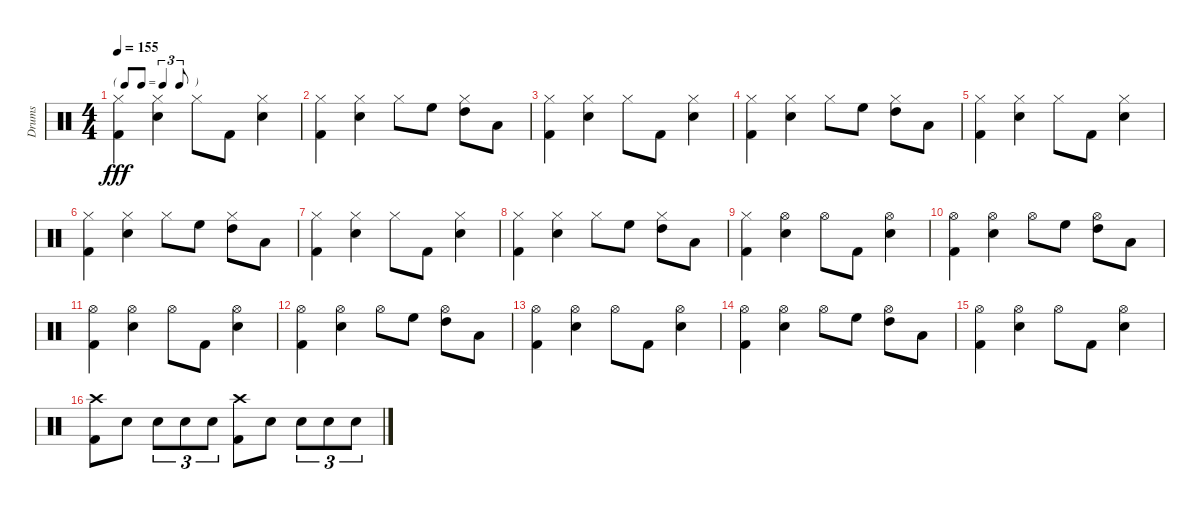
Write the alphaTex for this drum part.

\track ("Drums" "Drums") {instrument percussion}
\staff {score}
\articulation defaults
\ts (4 4)
\tf triplet8th
\tempo 155
\clef neutral
\ks c
("Hi-Hat (closed)" "Kick (hit) 2").4{dy fff} ("Hi-Hat (closed)" "Snare (hit) 2").4 "Hi-Hat (closed)".8 "Kick (hit) 2".8 ("Hi-Hat (closed)" "Snare (hit) 2").4 |
("Hi-Hat (closed)" "Kick (hit) 2").4 ("Hi-Hat (closed)" "Snare (hit) 2").4 "Hi-Hat (closed)".8 "High Floor Tom (hit)".8 ("Hi-Hat (closed)" "High Tom (hit)").8 "Low Tom (hit)".8 |
("Hi-Hat (closed)" "Kick (hit) 2").4 ("Hi-Hat (closed)" "Snare (hit) 2").4 "Hi-Hat (closed)".8 "Kick (hit) 2".8 ("Hi-Hat (closed)" "Snare (hit) 2").4 |
("Hi-Hat (closed)" "Kick (hit) 2").4 ("Hi-Hat (closed)" "Snare (hit) 2").4 "Hi-Hat (closed)".8 "High Floor Tom (hit)".8 ("Hi-Hat (closed)" "High Tom (hit)").8 "Low Tom (hit)".8 |
("Hi-Hat (closed)" "Kick (hit) 2").4 ("Hi-Hat (closed)" "Snare (hit) 2").4 "Hi-Hat (closed)".8 "Kick (hit) 2".8 ("Hi-Hat (closed)" "Snare (hit) 2").4 |
("Hi-Hat (closed)" "Kick (hit) 2").4 ("Hi-Hat (closed)" "Snare (hit) 2").4 "Hi-Hat (closed)".8 "High Floor Tom (hit)".8 ("Hi-Hat (closed)" "High Tom (hit)").8 "Low Tom (hit)".8 |
("Hi-Hat (closed)" "Kick (hit) 2").4 ("Hi-Hat (closed)" "Snare (hit) 2").4 "Hi-Hat (closed)".8 "Kick (hit) 2".8 ("Hi-Hat (closed)" "Snare (hit) 2").4 |
("Hi-Hat (closed)" "Kick (hit) 2").4 ("Hi-Hat (closed)" "Snare (hit) 2").4 "Hi-Hat (closed)".8 "High Floor Tom (hit)".8 ("Hi-Hat (closed)" "High Tom (hit)").8 "Low Tom (hit)".8 |
("Hi-Hat (closed)" "Kick (hit) 2").4 ("Hi-Hat (open)" "Snare (hit) 2").4 "Hi-Hat (open)".8 "Kick (hit) 2".8 ("Hi-Hat (open)" "Snare (hit) 2").4 |
("Hi-Hat (open)" "Kick (hit) 2").4 ("Hi-Hat (open)" "Snare (hit) 2").4 "Hi-Hat (open)".8 "High Floor Tom (hit)".8 ("Hi-Hat (open)" "High Tom (hit)").8 "Low Tom (hit)".8 |
("Hi-Hat (open)" "Kick (hit) 2").4 ("Hi-Hat (open)" "Snare (hit) 2").4 "Hi-Hat (open)".8 "Kick (hit) 2".8 ("Hi-Hat (open)" "Snare (hit) 2").4 |
("Hi-Hat (open)" "Kick (hit) 2").4 ("Hi-Hat (open)" "Snare (hit) 2").4 "Hi-Hat (open)".8 "High Floor Tom (hit)".8 ("Hi-Hat (open)" "High Tom (hit)").8 "Low Tom (hit)".8 |
("Hi-Hat (open)" "Kick (hit) 2").4 ("Hi-Hat (open)" "Snare (hit) 2").4 "Hi-Hat (open)".8 "Kick (hit) 2".8 ("Hi-Hat (open)" "Snare (hit) 2").4 |
("Hi-Hat (open)" "Kick (hit) 2").4 ("Hi-Hat (open)" "Snare (hit) 2").4 "Hi-Hat (open)".8 "High Floor Tom (hit)".8 ("Hi-Hat (open)" "High Tom (hit)").8 "Low Tom (hit)".8 |
("Hi-Hat (open)" "Kick (hit) 2").4 ("Hi-Hat (open)" "Snare (hit) 2").4 "Hi-Hat (open)".8 "Kick (hit) 2".8 ("Hi-Hat (open)" "Snare (hit) 2").4 |
("Crash high (hit)" "Kick (hit) 2").8 "Snare (hit) 2".8 "Snare (hit) 2".8{tu (3 2)} "Snare (hit) 2".8{tu (3 2)} "Snare (hit) 2".8{tu (3 2)} ("Crash high (hit)" "Kick (hit) 2").8 "Snare (hit) 2".8 "Snare (hit) 2".8{tu (3 2)} "Snare (hit) 2".8{tu (3 2)} "Snare (hit) 2".8{tu (3 2)}
